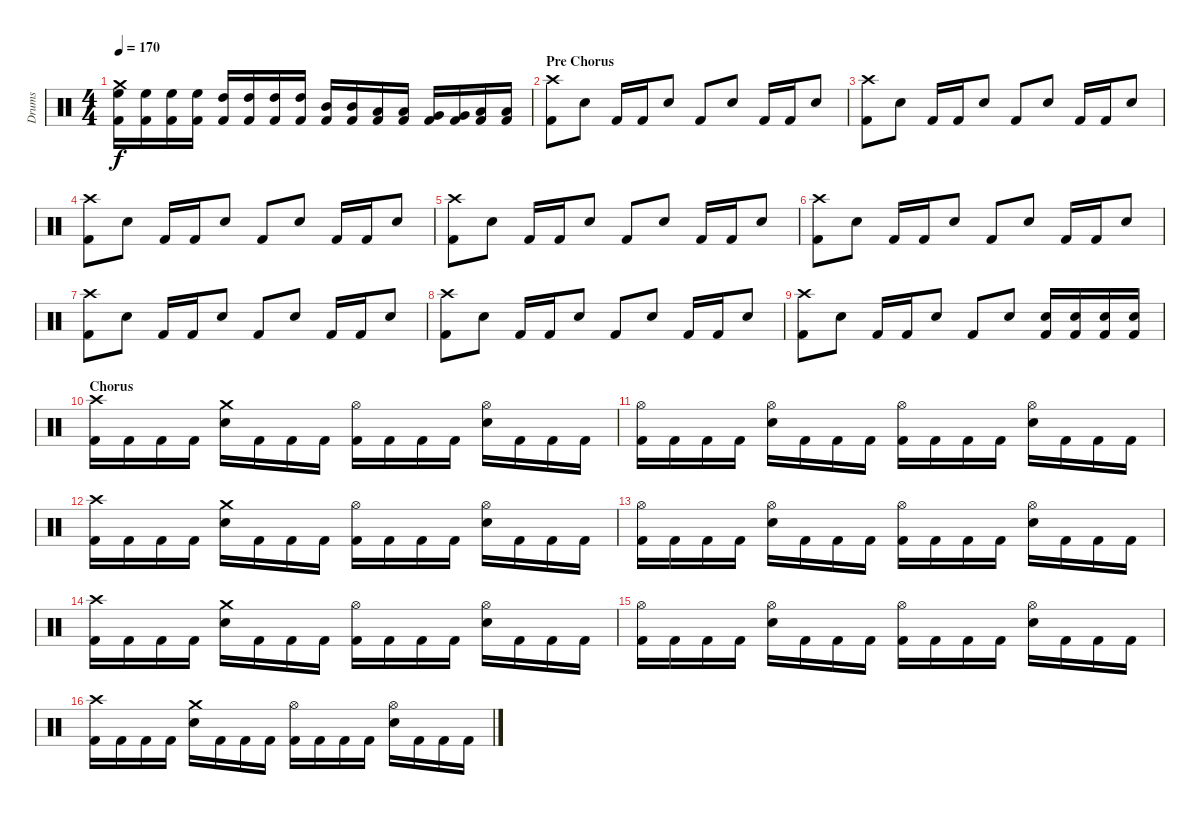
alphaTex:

\track ("Drums" "Drums") {instrument percussion}
\staff {score}
\articulation defaults
\ts (4 4)
\tempo 170
\clef neutral
\ks c
("Crash medium (hit)" "High Floor Tom (hit)" "Kick (hit) 2").16{dy f} ("High Floor Tom (hit)" "Kick (hit) 2").16 ("High Floor Tom (hit)" "Kick (hit) 2").16 ("High Floor Tom (hit)" "Kick (hit) 2").16 ("High Tom (hit)" "Kick (hit) 2").16 ("High Tom (hit)" "Kick (hit) 2").16 ("High Tom (hit)" "Kick (hit) 2").16 ("High Tom (hit)" "Kick (hit) 2").16 ("Mid Tom (hit)" "Kick (hit) 2").16 ("Mid Tom (hit)" "Kick (hit) 2").16 ("Low Tom (hit)" "Kick (hit) 2").16 ("Low Tom (hit)" "Kick (hit) 2").16 ("Very Low Tom (hit)" "Kick (hit) 2").16 ("Very Low Tom (hit)" "Kick (hit) 2").16 ("Low Floor Tom (hit)" "Kick (hit) 2").16 ("Low Floor Tom (hit)" "Kick (hit) 2").16 |
\section ("" "Pre Chorus")
("Crash high (hit)" "Kick (hit) 2").8 "Snare (hit) 2".8 "Kick (hit) 2".16 "Kick (hit) 2".16 "Snare (hit) 2".8 "Kick (hit) 2".8 "Snare (hit) 2".8 "Kick (hit) 2".16 "Kick (hit) 2".16 "Snare (hit) 2".8 |
("Crash high (hit)" "Kick (hit) 2").8 "Snare (hit) 2".8 "Kick (hit) 2".16 "Kick (hit) 2".16 "Snare (hit) 2".8 "Kick (hit) 2".8 "Snare (hit) 2".8 "Kick (hit) 2".16 "Kick (hit) 2".16 "Snare (hit) 2".8 |
("Crash high (hit)" "Kick (hit) 2").8 "Snare (hit) 2".8 "Kick (hit) 2".16 "Kick (hit) 2".16 "Snare (hit) 2".8 "Kick (hit) 2".8 "Snare (hit) 2".8 "Kick (hit) 2".16 "Kick (hit) 2".16 "Snare (hit) 2".8 |
("Crash high (hit)" "Kick (hit) 2").8 "Snare (hit) 2".8 "Kick (hit) 2".16 "Kick (hit) 2".16 "Snare (hit) 2".8 "Kick (hit) 2".8 "Snare (hit) 2".8 "Kick (hit) 2".16 "Kick (hit) 2".16 "Snare (hit) 2".8 |
("Crash high (hit)" "Kick (hit) 2").8 "Snare (hit) 2".8 "Kick (hit) 2".16 "Kick (hit) 2".16 "Snare (hit) 2".8 "Kick (hit) 2".8 "Snare (hit) 2".8 "Kick (hit) 2".16 "Kick (hit) 2".16 "Snare (hit) 2".8 |
("Crash high (hit)" "Kick (hit) 2").8 "Snare (hit) 2".8 "Kick (hit) 2".16 "Kick (hit) 2".16 "Snare (hit) 2".8 "Kick (hit) 2".8 "Snare (hit) 2".8 "Kick (hit) 2".16 "Kick (hit) 2".16 "Snare (hit) 2".8 |
("Crash high (hit)" "Kick (hit) 2").8 "Snare (hit) 2".8 "Kick (hit) 2".16 "Kick (hit) 2".16 "Snare (hit) 2".8 "Kick (hit) 2".8 "Snare (hit) 2".8 "Kick (hit) 2".16 "Kick (hit) 2".16 "Snare (hit) 2".8 |
("Crash high (hit)" "Kick (hit) 2").8 "Snare (hit) 2".8 "Kick (hit) 2".16 "Kick (hit) 2".16 "Snare (hit) 2".8 "Kick (hit) 2".8 "Snare (hit) 2".8 ("Snare (hit) 2" "Kick (hit) 2").16 ("Snare (hit) 2" "Kick (hit) 2").16 ("Snare (hit) 2" "Kick (hit) 2").16 ("Snare (hit) 2" "Kick (hit) 2").16 |
\section ("" "Chorus")
("Crash high (hit)" "Kick (hit) 2").16 "Kick (hit) 2".16 "Kick (hit) 2".16 "Kick (hit) 2".16 ("Crash medium (hit)" "Snare (hit) 2").16 "Kick (hit) 2".16 "Kick (hit) 2".16 "Kick (hit) 2".16 ("Hi-Hat (open)" "Kick (hit) 2").16 "Kick (hit) 2".16 "Kick (hit) 2".16 "Kick (hit) 2".16 ("Hi-Hat (open)" "Snare (hit) 2").16 "Kick (hit) 2".16 "Kick (hit) 2".16 "Kick (hit) 2".16 |
("Hi-Hat (open)" "Kick (hit) 2").16 "Kick (hit) 2".16 "Kick (hit) 2".16 "Kick (hit) 2".16 ("Hi-Hat (open)" "Snare (hit) 2").16 "Kick (hit) 2".16 "Kick (hit) 2".16 "Kick (hit) 2".16 ("Hi-Hat (open)" "Kick (hit) 2").16 "Kick (hit) 2".16 "Kick (hit) 2".16 "Kick (hit) 2".16 ("Hi-Hat (open)" "Snare (hit) 2").16 "Kick (hit) 2".16 "Kick (hit) 2".16 "Kick (hit) 2".16 |
("Crash high (hit)" "Kick (hit) 2").16 "Kick (hit) 2".16 "Kick (hit) 2".16 "Kick (hit) 2".16 ("Crash medium (hit)" "Snare (hit) 2").16 "Kick (hit) 2".16 "Kick (hit) 2".16 "Kick (hit) 2".16 ("Hi-Hat (open)" "Kick (hit) 2").16 "Kick (hit) 2".16 "Kick (hit) 2".16 "Kick (hit) 2".16 ("Hi-Hat (open)" "Snare (hit) 2").16 "Kick (hit) 2".16 "Kick (hit) 2".16 "Kick (hit) 2".16 |
("Hi-Hat (open)" "Kick (hit) 2").16 "Kick (hit) 2".16 "Kick (hit) 2".16 "Kick (hit) 2".16 ("Hi-Hat (open)" "Snare (hit) 2").16 "Kick (hit) 2".16 "Kick (hit) 2".16 "Kick (hit) 2".16 ("Hi-Hat (open)" "Kick (hit) 2").16 "Kick (hit) 2".16 "Kick (hit) 2".16 "Kick (hit) 2".16 ("Hi-Hat (open)" "Snare (hit) 2").16 "Kick (hit) 2".16 "Kick (hit) 2".16 "Kick (hit) 2".16 |
("Crash high (hit)" "Kick (hit) 2").16 "Kick (hit) 2".16 "Kick (hit) 2".16 "Kick (hit) 2".16 ("Crash medium (hit)" "Snare (hit) 2").16 "Kick (hit) 2".16 "Kick (hit) 2".16 "Kick (hit) 2".16 ("Hi-Hat (open)" "Kick (hit) 2").16 "Kick (hit) 2".16 "Kick (hit) 2".16 "Kick (hit) 2".16 ("Hi-Hat (open)" "Snare (hit) 2").16 "Kick (hit) 2".16 "Kick (hit) 2".16 "Kick (hit) 2".16 |
("Hi-Hat (open)" "Kick (hit) 2").16 "Kick (hit) 2".16 "Kick (hit) 2".16 "Kick (hit) 2".16 ("Hi-Hat (open)" "Snare (hit) 2").16 "Kick (hit) 2".16 "Kick (hit) 2".16 "Kick (hit) 2".16 ("Hi-Hat (open)" "Kick (hit) 2").16 "Kick (hit) 2".16 "Kick (hit) 2".16 "Kick (hit) 2".16 ("Hi-Hat (open)" "Snare (hit) 2").16 "Kick (hit) 2".16 "Kick (hit) 2".16 "Kick (hit) 2".16 |
("Crash high (hit)" "Kick (hit) 2").16 "Kick (hit) 2".16 "Kick (hit) 2".16 "Kick (hit) 2".16 ("Crash medium (hit)" "Snare (hit) 2").16 "Kick (hit) 2".16 "Kick (hit) 2".16 "Kick (hit) 2".16 ("Hi-Hat (open)" "Kick (hit) 2").16 "Kick (hit) 2".16 "Kick (hit) 2".16 "Kick (hit) 2".16 ("Hi-Hat (open)" "Snare (hit) 2").16 "Kick (hit) 2".16 "Kick (hit) 2".16 "Kick (hit) 2".16
